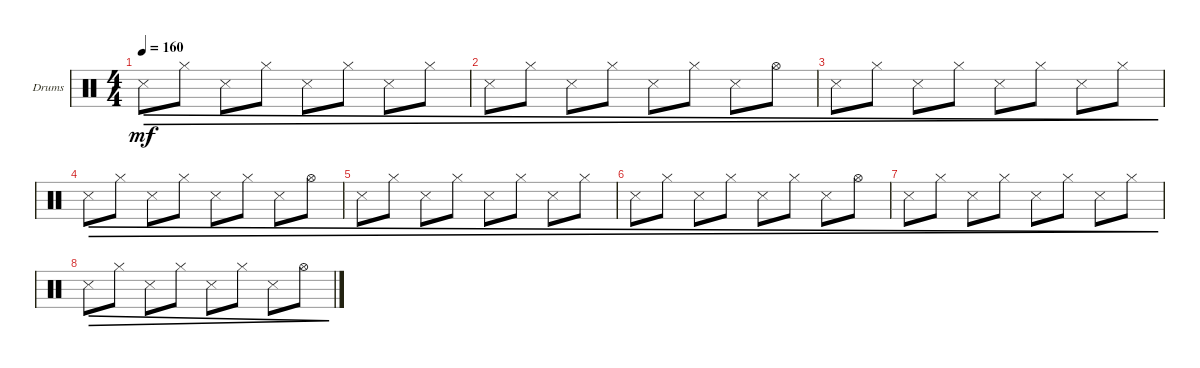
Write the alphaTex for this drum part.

\defaultSystemsLayout 4
\bracketExtendMode groupsimilarinstruments
\firstSystemTrackNameOrientation horizontal
\otherSystemsTrackNameOrientation horizontal
\track ("Drumkit" "Drums") {instrument percussion}
\staff {score}
\articulation defaults
\ts (4 4)
\tempo 160
\clef neutral
\scale
0.333333
\ks c "Snare (side stick) 3".8{dec dy mf} "Hi-Hat (closed)".8{dec} "Snare (side stick) 3".8{dec} "Hi-Hat (closed)".8{dec} "Snare (side stick) 3".8{dec} "Hi-Hat (closed)".8{dec} "Snare (side stick) 3".8{dec} "Hi-Hat (closed)".8{dec}
|
\scale
0.333333 "Snare (side stick) 3".8{dec} "Hi-Hat (closed)".8{dec} "Snare (side stick) 3".8{dec} "Hi-Hat (closed)".8{dec} "Snare (side stick) 3".8{dec} "Hi-Hat (closed)".8{dec} "Snare (side stick) 3".8{dec} "Hi-Hat (open)".8{dec} |
\scale
0.333333 "Snare (side stick) 3".8{dec} "Hi-Hat (closed)".8{dec} "Snare (side stick) 3".8{dec} "Hi-Hat (closed)".8{dec} "Snare (side stick) 3".8{dec} "Hi-Hat (closed)".8{dec} "Snare (side stick) 3".8{dec} "Hi-Hat (closed)".8{dec} |
"Snare (side stick) 3".8{dec} "Hi-Hat (closed)".8{dec} "Snare (side stick) 3".8{dec} "Hi-Hat (closed)".8{dec} "Snare (side stick) 3".8{dec} "Hi-Hat (closed)".8{dec} "Snare (side stick) 3".8{dec} "Hi-Hat (open)".8{dec} |
"Snare (side stick) 3".8{dec} "Hi-Hat (closed)".8{dec} "Snare (side stick) 3".8{dec} "Hi-Hat (closed)".8{dec} "Snare (side stick) 3".8{dec} "Hi-Hat (closed)".8{dec} "Snare (side stick) 3".8{dec} "Hi-Hat (closed)".8{dec} |
"Snare (side stick) 3".8{dec} "Hi-Hat (closed)".8{dec} "Snare (side stick) 3".8{dec} "Hi-Hat (closed)".8{dec} "Snare (side stick) 3".8{dec} "Hi-Hat (closed)".8{dec} "Snare (side stick) 3".8{dec} "Hi-Hat (open)".8{dec} |
"Snare (side stick) 3".8{dec} "Hi-Hat (closed)".8{dec} "Snare (side stick) 3".8{dec} "Hi-Hat (closed)".8{dec} "Snare (side stick) 3".8{dec} "Hi-Hat (closed)".8{dec} "Snare (side stick) 3".8{dec} "Hi-Hat (closed)".8{dec} |
"Snare (side stick) 3".8{dec} "Hi-Hat (closed)".8{dec} "Snare (side stick) 3".8{dec} "Hi-Hat (closed)".8{dec} "Snare (side stick) 3".8{dec} "Hi-Hat (closed)".8{dec} "Snare (side stick) 3".8{dec} "Hi-Hat (open)".8{dec}
